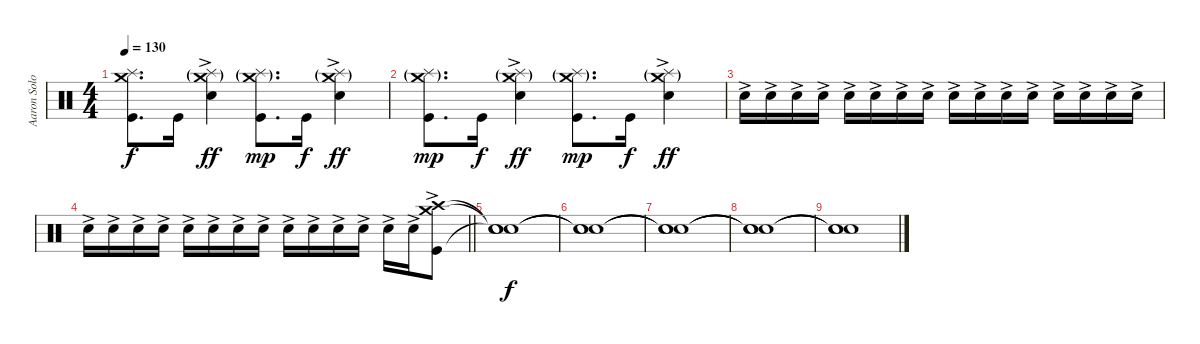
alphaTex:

\track ("Aaron Solowoniuk" "Aaron Solo") {instrument percussion}
\staff {score}
\articulation defaults
\ts (4 4)
\tempo 130
\clef neutral
\ks c
("Crash medium (hit)" "Splash (hit)" "Kick (hit)").8{d dy f} "Kick (hit)".16 ("Crash medium (hit)"{g} "Splash (hit)"{g} "Electric Snare (hit)"{ac}).4{dy ff} ("Crash medium (hit)"{g} "Splash (hit)"{g} "Kick (hit)").8{d dy mp} "Kick (hit)".16{dy f} ("Crash medium (hit)"{g} "Splash (hit)"{g} "Electric Snare (hit)"{ac}).4{dy ff} |
("Crash medium (hit)"{g} "Splash (hit)"{g} "Kick (hit)").8{d dy mp} "Kick (hit)".16{dy f} ("Crash medium (hit)"{g} "Splash (hit)"{g} "Electric Snare (hit)"{ac}).4{dy ff} ("Crash medium (hit)"{g} "Splash (hit)"{g} "Kick (hit)").8{d dy mp} "Kick (hit)".16{dy f} ("Crash medium (hit)"{g} "Splash (hit)"{g} "Electric Snare (hit)"{ac}).4{dy ff} |
"Electric Snare (hit)"{ac}.16 "Electric Snare (hit)"{ac}.16 "Electric Snare (hit)"{ac}.16 "Electric Snare (hit)"{ac}.16 "Electric Snare (hit)"{ac}.16 "Electric Snare (hit)"{ac}.16 "Electric Snare (hit)"{ac}.16 "Electric Snare (hit)"{ac}.16 "Electric Snare (hit)"{ac}.16 "Electric Snare (hit)"{ac}.16 "Electric Snare (hit)"{ac}.16 "Electric Snare (hit)"{ac}.16 "Electric Snare (hit)"{ac}.16 "Electric Snare (hit)"{ac}.16 "Electric Snare (hit)"{ac}.16 "Electric Snare (hit)"{ac}.16 |
\barLineRight lightlight "Electric Snare (hit)"{ac}.16 "Electric Snare (hit)"{ac}.16 "Electric Snare (hit)"{ac}.16 "Electric Snare (hit)"{ac}.16 "Electric Snare (hit)"{ac}.16 "Electric Snare (hit)"{ac}.16 "Electric Snare (hit)"{ac}.16 "Electric Snare (hit)"{ac}.16 "Electric Snare (hit)"{ac}.16 "Electric Snare (hit)"{ac}.16 "Electric Snare (hit)"{ac}.16 "Electric Snare (hit)"{ac}.16 "Electric Snare (hit)"{ac}.16 "Electric Snare (hit)"{ac}.16
("Crash medium (hit)" "Crash high (hit)" "Kick (hit)"{ac}).8 |
("Snare (hit)"{t} "Snare (hit)"{t} "Snare (hit)"{t}).1{dy f} |
("Snare (hit)"{t} "Snare (hit)"{t} "Snare (hit)"{t}).1 |
("Snare (hit)"{t} "Snare (hit)"{t} "Snare (hit)"{t}).1 |
("Snare (hit)"{t} "Snare (hit)"{t} "Snare (hit)"{t}).1 |
("Snare (hit)"{t} "Snare (hit)"{t} "Snare (hit)"{t}).1
